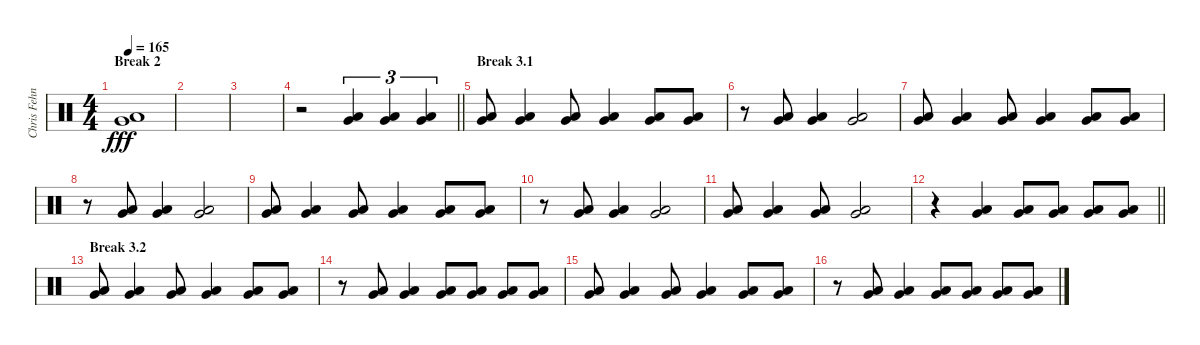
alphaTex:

\track ("Chris Fehn" "Chris Fehn") {instrument percussion}
\staff {score}
\articulation defaults
\ts (4 4)
\section ("" "Break 2")
\tempo 165
\clef neutral
\ks c
("Very Low Tom (hit)" "Low Floor Tom (hit)").1{dy fff} |
|
|
\barLineRight lightlight
r.2 ("Very Low Tom (hit)" "Low Floor Tom (hit)").4{tu (3 2)} ("Very Low Tom (hit)" "Low Floor Tom (hit)").4{tu (3 2)} ("Very Low Tom (hit)" "Low Floor Tom (hit)").4{tu (3 2)} |
\section ("" "Break 3.1")
("Very Low Tom (hit)" "Low Floor Tom (hit)").8 ("Very Low Tom (hit)" "Low Floor Tom (hit)").4 ("Very Low Tom (hit)" "Low Floor Tom (hit)").8 ("Very Low Tom (hit)" "Low Floor Tom (hit)").4 ("Very Low Tom (hit)" "Low Floor Tom (hit)").8 ("Very Low Tom (hit)" "Low Floor Tom (hit)").8 |
r.8 ("Very Low Tom (hit)" "Low Floor Tom (hit)").8 ("Very Low Tom (hit)" "Low Floor Tom (hit)").4 ("Very Low Tom (hit)" "Low Floor Tom (hit)").2 |
("Very Low Tom (hit)" "Low Floor Tom (hit)").8 ("Very Low Tom (hit)" "Low Floor Tom (hit)").4 ("Very Low Tom (hit)" "Low Floor Tom (hit)").8 ("Very Low Tom (hit)" "Low Floor Tom (hit)").4 ("Very Low Tom (hit)" "Low Floor Tom (hit)").8 ("Very Low Tom (hit)" "Low Floor Tom (hit)").8 |
r.8 ("Very Low Tom (hit)" "Low Floor Tom (hit)").8 ("Very Low Tom (hit)" "Low Floor Tom (hit)").4 ("Very Low Tom (hit)" "Low Floor Tom (hit)").2 |
("Very Low Tom (hit)" "Low Floor Tom (hit)").8 ("Very Low Tom (hit)" "Low Floor Tom (hit)").4 ("Very Low Tom (hit)" "Low Floor Tom (hit)").8 ("Very Low Tom (hit)" "Low Floor Tom (hit)").4 ("Very Low Tom (hit)" "Low Floor Tom (hit)").8 ("Very Low Tom (hit)" "Low Floor Tom (hit)").8 |
r.8 ("Very Low Tom (hit)" "Low Floor Tom (hit)").8 ("Very Low Tom (hit)" "Low Floor Tom (hit)").4 ("Very Low Tom (hit)" "Low Floor Tom (hit)").2 |
("Very Low Tom (hit)" "Low Floor Tom (hit)").8 ("Very Low Tom (hit)" "Low Floor Tom (hit)").4 ("Very Low Tom (hit)" "Low Floor Tom (hit)").8 ("Very Low Tom (hit)" "Low Floor Tom (hit)").2 |
\barLineRight lightlight
r.4 ("Very Low Tom (hit)" "Low Floor Tom (hit)").4 ("Very Low Tom (hit)" "Low Floor Tom (hit)").8 ("Very Low Tom (hit)" "Low Floor Tom (hit)").8 ("Very Low Tom (hit)" "Low Floor Tom (hit)").8 ("Very Low Tom (hit)" "Low Floor Tom (hit)").8 |
\section ("" "Break 3.2")
("Very Low Tom (hit)" "Low Floor Tom (hit)").8 ("Very Low Tom (hit)" "Low Floor Tom (hit)").4 ("Very Low Tom (hit)" "Low Floor Tom (hit)").8 ("Very Low Tom (hit)" "Low Floor Tom (hit)").4 ("Very Low Tom (hit)" "Low Floor Tom (hit)").8 ("Very Low Tom (hit)" "Low Floor Tom (hit)").8 |
r.8 ("Very Low Tom (hit)" "Low Floor Tom (hit)").8 ("Very Low Tom (hit)" "Low Floor Tom (hit)").4 ("Very Low Tom (hit)" "Low Floor Tom (hit)").8 ("Very Low Tom (hit)" "Low Floor Tom (hit)").8 ("Very Low Tom (hit)" "Low Floor Tom (hit)").8 ("Very Low Tom (hit)" "Low Floor Tom (hit)").8 |
("Very Low Tom (hit)" "Low Floor Tom (hit)").8 ("Very Low Tom (hit)" "Low Floor Tom (hit)").4 ("Very Low Tom (hit)" "Low Floor Tom (hit)").8 ("Very Low Tom (hit)" "Low Floor Tom (hit)").4 ("Very Low Tom (hit)" "Low Floor Tom (hit)").8 ("Very Low Tom (hit)" "Low Floor Tom (hit)").8 |
r.8 ("Very Low Tom (hit)" "Low Floor Tom (hit)").8 ("Very Low Tom (hit)" "Low Floor Tom (hit)").4 ("Very Low Tom (hit)" "Low Floor Tom (hit)").8 ("Very Low Tom (hit)" "Low Floor Tom (hit)").8 ("Very Low Tom (hit)" "Low Floor Tom (hit)").8 ("Very Low Tom (hit)" "Low Floor Tom (hit)").8
